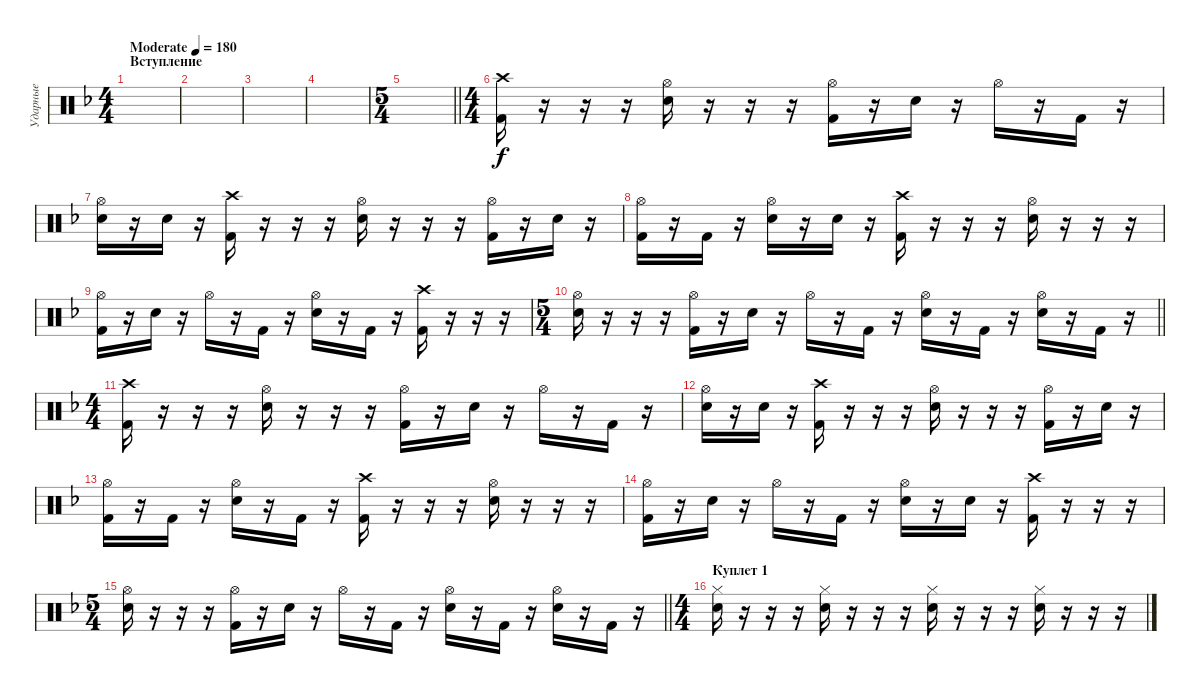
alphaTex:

\track ("Ударные" "Ударные") {instrument percussion}
\staff {score}
\articulation defaults
\ts (4 4)
\section ("" "Вступление")
\tempo (180 "Moderate")
\clef neutral
\ks dminor
|
|
|
|
\ts (5 4)
\barLineRight lightlight
|
\ts (4 4)
("Crash high (hit)" "Kick (hit) 2").16 r.16 r.16 r.16 ("Hi-Hat (open)" "Electric Snare (hit)").16 r.16 r.16 r.16 ("Hi-Hat (open)" "Kick (hit) 2").16 r.16 "Electric Snare (hit)".16 r.16 "Hi-Hat (open)".16 r.16 "Kick (hit) 2".16 r.16 |
("Hi-Hat (open)" "Electric Snare (hit)").16 r.16 "Electric Snare (hit)".16 r.16 ("Crash high (hit)" "Kick (hit) 2").16 r.16 r.16 r.16 ("Hi-Hat (open)" "Electric Snare (hit)").16 r.16 r.16 r.16 ("Hi-Hat (open)" "Kick (hit) 2").16 r.16 "Electric Snare (hit)".16 r.16 |
("Hi-Hat (open)" "Kick (hit) 2").16 r.16 "Kick (hit) 2".16 r.16 ("Hi-Hat (open)" "Electric Snare (hit)").16 r.16 "Electric Snare (hit)".16 r.16 ("Crash high (hit)" "Kick (hit) 2").16 r.16 r.16 r.16 ("Hi-Hat (open)" "Electric Snare (hit)").16 r.16 r.16 r.16 |
("Hi-Hat (open)" "Kick (hit) 2").16 r.16 "Electric Snare (hit)".16 r.16 "Hi-Hat (open)".16 r.16 "Kick (hit) 2".16 r.16 ("Hi-Hat (open)" "Electric Snare (hit)").16 r.16 "Kick (hit) 2".16 r.16 ("Crash high (hit)" "Kick (hit) 2").16 r.16 r.16 r.16 |
\ts (5 4)
\barLineRight lightlight
("Hi-Hat (open)" "Electric Snare (hit)").16 r.16 r.16 r.16 ("Hi-Hat (open)" "Kick (hit) 2").16 r.16 "Electric Snare (hit)".16 r.16 "Hi-Hat (open)".16 r.16 "Kick (hit) 2".16 r.16 ("Hi-Hat (open)" "Electric Snare (hit)").16 r.16 "Kick (hit) 2".16 r.16 ("Hi-Hat (open)" "Electric Snare (hit)").16 r.16 "Kick (hit) 2".16 r.16 |
\ts (4 4)
("Crash high (hit)" "Kick (hit) 2").16 r.16 r.16 r.16 ("Hi-Hat (open)" "Electric Snare (hit)").16 r.16 r.16 r.16 ("Hi-Hat (open)" "Kick (hit) 2").16 r.16 "Electric Snare (hit)".16 r.16 "Hi-Hat (open)".16 r.16 "Kick (hit) 2".16 r.16 |
("Hi-Hat (open)" "Electric Snare (hit)").16 r.16 "Electric Snare (hit)".16 r.16 ("Crash high (hit)" "Kick (hit) 2").16 r.16 r.16 r.16 ("Hi-Hat (open)" "Electric Snare (hit)").16 r.16 r.16 r.16 ("Hi-Hat (open)" "Kick (hit) 2").16 r.16 "Electric Snare (hit)".16 r.16 |
("Hi-Hat (open)" "Kick (hit) 2").16 r.16 "Kick (hit) 2".16 r.16 ("Hi-Hat (open)" "Electric Snare (hit)").16 r.16 "Kick (hit) 2".16 r.16 ("Crash high (hit)" "Kick (hit) 2").16 r.16 r.16 r.16 ("Hi-Hat (open)" "Electric Snare (hit)").16 r.16 r.16 r.16 |
("Hi-Hat (open)" "Kick (hit) 2").16 r.16 "Electric Snare (hit)".16 r.16 "Hi-Hat (open)".16 r.16 "Kick (hit) 2".16 r.16 ("Hi-Hat (open)" "Electric Snare (hit)").16 r.16 "Electric Snare (hit)".16 r.16 ("Crash high (hit)" "Kick (hit) 2").16 r.16 r.16 r.16 |
\ts (5 4)
\barLineRight lightlight
("Hi-Hat (open)" "Electric Snare (hit)").16 r.16 r.16 r.16 ("Hi-Hat (open)" "Kick (hit) 2").16 r.16 "Electric Snare (hit)".16 r.16 "Hi-Hat (open)".16 r.16 "Kick (hit) 2".16 r.16 ("Hi-Hat (open)" "Electric Snare (hit)").16 r.16 "Kick (hit) 2".16 r.16 ("Hi-Hat (open)" "Electric Snare (hit)").16 r.16 "Kick (hit) 2".16 r.16 |
\ts (4 4)
\section ("" "Куплет 1")
("Electric Snare (hit)" "Hi-Hat (closed)").16 r.16 r.16 r.16 ("Electric Snare (hit)" "Hi-Hat (closed)").16 r.16 r.16 r.16 ("Electric Snare (hit)" "Hi-Hat (closed)").16 r.16 r.16 r.16 ("Electric Snare (hit)" "Hi-Hat (closed)").16 r.16 r.16 r.16
